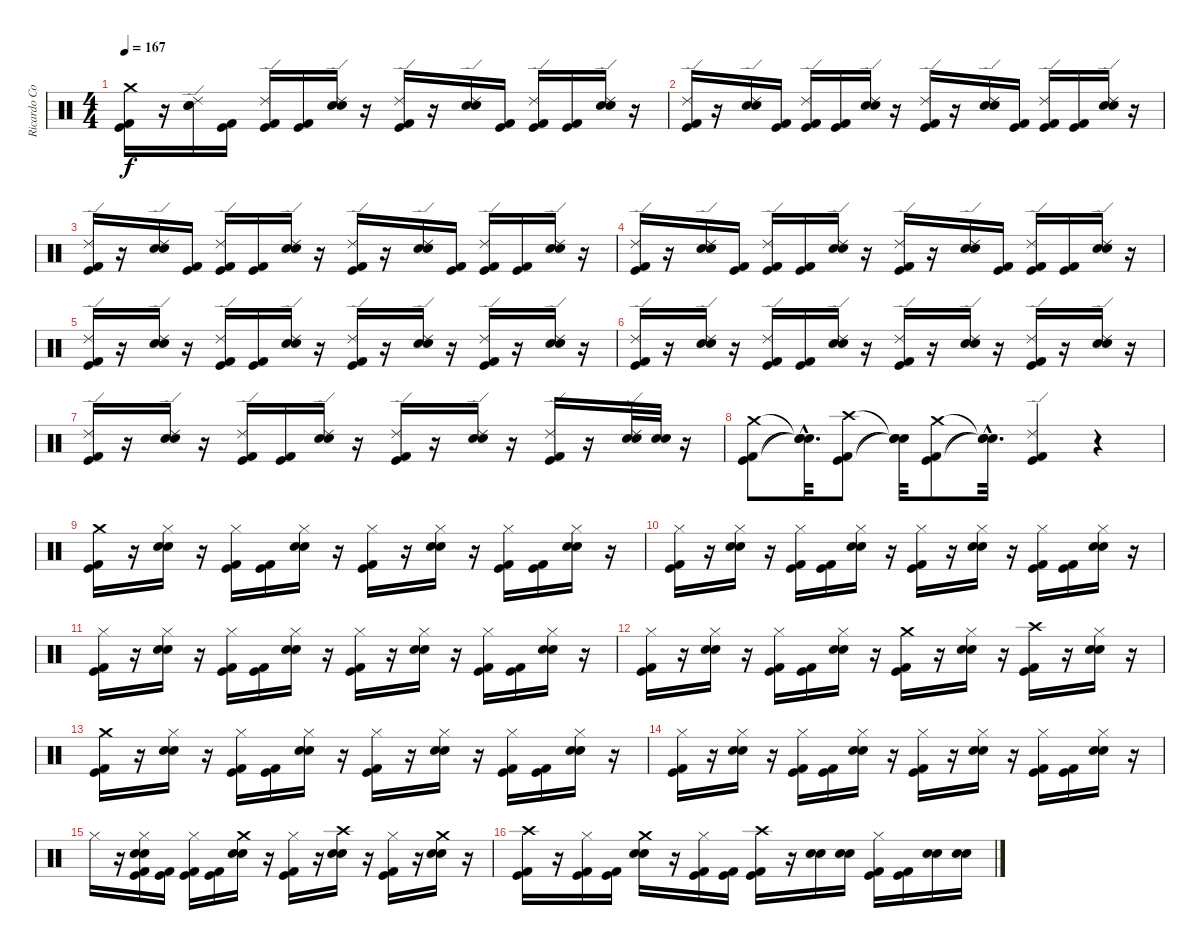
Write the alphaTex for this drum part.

\track ("Ricardo Confessori" "Ricardo Co") {instrument percussion}
\staff {score}
\articulation defaults
\ts (4 4)
\tempo 167
\clef neutral
\ks c
("Crash medium (hit)" "Kick (hit) 2" "Kick (hit)").16{dy f} r.16 ("Ride (edge) 2" "Electric Snare (hit)" "Snare (hit) 2").16 ("Kick (hit) 2" "Kick (hit)").16 ("Ride (edge) 2" "Kick (hit) 2" "Kick (hit)").16 ("Kick (hit) 2" "Kick (hit)").16 ("Ride (edge) 2" "Electric Snare (hit)" "Snare (hit) 2").16 r.16 ("Ride (edge) 2" "Kick (hit) 2" "Kick (hit)").16 r.16 ("Ride (edge) 2" "Electric Snare (hit)" "Snare (hit) 2").16 ("Kick (hit) 2" "Kick (hit)").16 ("Ride (edge) 2" "Kick (hit) 2" "Kick (hit)").16 ("Kick (hit) 2" "Kick (hit)").16 ("Ride (edge) 2" "Electric Snare (hit)" "Snare (hit) 2").16 r.16 |
("Ride (edge) 2" "Kick (hit) 2" "Kick (hit)").16 r.16 ("Ride (edge) 2" "Electric Snare (hit)" "Snare (hit) 2").16 ("Kick (hit) 2" "Kick (hit)").16 ("Ride (edge) 2" "Kick (hit) 2" "Kick (hit)").16 ("Kick (hit) 2" "Kick (hit)").16 ("Ride (edge) 2" "Electric Snare (hit)" "Snare (hit) 2").16 r.16 ("Ride (edge) 2" "Kick (hit) 2" "Kick (hit)").16 r.16 ("Ride (edge) 2" "Electric Snare (hit)" "Snare (hit) 2").16 ("Kick (hit) 2" "Kick (hit)").16 ("Ride (edge) 2" "Kick (hit) 2" "Kick (hit)").16 ("Kick (hit) 2" "Kick (hit)").16 ("Ride (edge) 2" "Electric Snare (hit)" "Snare (hit) 2").16 r.16 |
("Ride (edge) 2" "Kick (hit) 2" "Kick (hit)").16 r.16 ("Ride (edge) 2" "Electric Snare (hit)" "Snare (hit) 2").16 ("Kick (hit) 2" "Kick (hit)").16 ("Ride (edge) 2" "Kick (hit) 2" "Kick (hit)").16 ("Kick (hit) 2" "Kick (hit)").16 ("Ride (edge) 2" "Electric Snare (hit)" "Snare (hit) 2").16 r.16 ("Ride (edge) 2" "Kick (hit) 2" "Kick (hit)").16 r.16 ("Ride (edge) 2" "Electric Snare (hit)" "Snare (hit) 2").16 ("Kick (hit) 2" "Kick (hit)").16 ("Ride (edge) 2" "Kick (hit) 2" "Kick (hit)").16 ("Kick (hit) 2" "Kick (hit)").16 ("Ride (edge) 2" "Electric Snare (hit)" "Snare (hit) 2").16 r.16 |
("Ride (edge) 2" "Kick (hit) 2" "Kick (hit)").16 r.16 ("Ride (edge) 2" "Electric Snare (hit)" "Snare (hit) 2").16 ("Kick (hit) 2" "Kick (hit)").16 ("Ride (edge) 2" "Kick (hit) 2" "Kick (hit)").16 ("Kick (hit) 2" "Kick (hit)").16 ("Ride (edge) 2" "Electric Snare (hit)" "Snare (hit) 2").16 r.16 ("Ride (edge) 2" "Kick (hit) 2" "Kick (hit)").16 r.16 ("Ride (edge) 2" "Electric Snare (hit)" "Snare (hit) 2").16 ("Kick (hit) 2" "Kick (hit)").16 ("Ride (edge) 2" "Kick (hit) 2" "Kick (hit)").16 ("Kick (hit) 2" "Kick (hit)").16 ("Ride (edge) 2" "Electric Snare (hit)" "Snare (hit) 2").16 r.16 |
("Kick (hit) 2" "Ride (edge) 2" "Kick (hit)").16 r.16 ("Electric Snare (hit)" "Snare (hit) 2" "Ride (edge) 2").16 r.16 ("Kick (hit) 2" "Kick (hit)" "Ride (edge) 2").16 ("Kick (hit) 2" "Kick (hit)").16 ("Electric Snare (hit)" "Snare (hit) 2" "Ride (edge) 2").16 r.16 ("Kick (hit) 2" "Kick (hit)" "Ride (edge) 2").16 r.16 ("Electric Snare (hit)" "Snare (hit) 2" "Ride (edge) 2").16 r.16 ("Kick (hit) 2" "Kick (hit)" "Ride (edge) 2").16 r.16 ("Electric Snare (hit)" "Snare (hit) 2" "Ride (edge) 2").16 r.16 |
("Kick (hit) 2" "Ride (edge) 2" "Kick (hit)").16 r.16 ("Electric Snare (hit)" "Snare (hit) 2" "Ride (edge) 2").16 r.16 ("Kick (hit) 2" "Kick (hit)" "Ride (edge) 2").16 ("Kick (hit) 2" "Kick (hit)").16 ("Electric Snare (hit)" "Snare (hit) 2" "Ride (edge) 2").16 r.16 ("Kick (hit) 2" "Kick (hit)" "Ride (edge) 2").16 r.16 ("Electric Snare (hit)" "Snare (hit) 2" "Ride (edge) 2").16 r.16 ("Kick (hit) 2" "Kick (hit)" "Ride (edge) 2").16 r.16 ("Electric Snare (hit)" "Snare (hit) 2" "Ride (edge) 2").16 r.16 |
("Kick (hit) 2" "Ride (edge) 2" "Kick (hit)").16 r.16 ("Electric Snare (hit)" "Snare (hit) 2" "Ride (edge) 2").16 r.16 ("Kick (hit) 2" "Kick (hit)" "Ride (edge) 2").16 ("Kick (hit) 2" "Kick (hit)").16 ("Electric Snare (hit)" "Snare (hit) 2" "Ride (edge) 2").16 r.16 ("Kick (hit) 2" "Kick (hit)" "Ride (edge) 2").16 r.16 ("Electric Snare (hit)" "Snare (hit) 2" "Ride (edge) 2").16 r.16 ("Kick (hit) 2" "Kick (hit)" "Ride (edge) 2").16 r.16 ("Electric Snare (hit)" "Snare (hit) 2" "Ride (edge) 2").32 ("Electric Snare (hit)" "Snare (hit) 2").32 r.16 |
("Crash medium (hit)" "Kick (hit) 2" "Kick (hit)").8 ("Snare (hit)"{hac t} "Snare (hit)"{hac t} "Snare (hit)"{hac t}).32{d} ("Crash high (hit)" "Kick (hit) 2" "Kick (hit)").8 ("Snare (hit)"{t} "Snare (hit)"{t} "Snare (hit)"{t}).32 ("Crash medium (hit)" "Kick (hit) 2" "Kick (hit)").8 ("Snare (hit)"{hac t} "Snare (hit)"{hac t} "Snare (hit)"{hac t}).32{d} ("Ride (edge) 2" "Kick (hit) 2" "Kick (hit)").4 r.4 |
("Crash medium (hit)" "Kick (hit) 2" "Kick (hit)").16 r.16 ("Hi-Hat (closed)" "Electric Snare (hit)" "Snare (hit) 2").16 r.16 ("Kick (hit) 2" "Kick (hit)" "Hi-Hat (closed)").16 ("Kick (hit) 2" "Kick (hit)").16 ("Electric Snare (hit)" "Snare (hit) 2" "Hi-Hat (closed)").16 r.16 ("Kick (hit) 2" "Kick (hit)" "Hi-Hat (closed)").16 r.16 ("Electric Snare (hit)" "Snare (hit) 2" "Hi-Hat (closed)").16 r.16 ("Kick (hit) 2" "Kick (hit)" "Hi-Hat (closed)").16 ("Kick (hit) 2" "Kick (hit)").16 ("Electric Snare (hit)" "Snare (hit) 2" "Hi-Hat (closed)").16 r.16 |
("Hi-Hat (closed)" "Kick (hit) 2" "Kick (hit)").16 r.16 ("Hi-Hat (closed)" "Electric Snare (hit)" "Snare (hit) 2").16 r.16 ("Kick (hit) 2" "Kick (hit)" "Hi-Hat (closed)").16 ("Kick (hit) 2" "Kick (hit)").16 ("Electric Snare (hit)" "Snare (hit) 2" "Hi-Hat (closed)").16 r.16 ("Kick (hit) 2" "Kick (hit)" "Hi-Hat (closed)").16 r.16 ("Electric Snare (hit)" "Snare (hit) 2" "Hi-Hat (closed)").16 r.16 ("Kick (hit) 2" "Kick (hit)" "Hi-Hat (closed)").16 ("Kick (hit) 2" "Kick (hit)").16 ("Electric Snare (hit)" "Snare (hit) 2" "Hi-Hat (closed)").16 r.16 |
("Hi-Hat (closed)" "Kick (hit) 2" "Kick (hit)").16 r.16 ("Hi-Hat (closed)" "Electric Snare (hit)" "Snare (hit) 2").16 r.16 ("Kick (hit) 2" "Kick (hit)" "Hi-Hat (closed)").16 ("Kick (hit) 2" "Kick (hit)").16 ("Electric Snare (hit)" "Snare (hit) 2" "Hi-Hat (closed)").16 r.16 ("Kick (hit) 2" "Kick (hit)" "Hi-Hat (closed)").16 r.16 ("Electric Snare (hit)" "Snare (hit) 2" "Hi-Hat (closed)").16 r.16 ("Kick (hit) 2" "Kick (hit)" "Hi-Hat (closed)").16 ("Kick (hit) 2" "Kick (hit)").16 ("Electric Snare (hit)" "Snare (hit) 2" "Hi-Hat (closed)").16 r.16 |
("Hi-Hat (closed)" "Kick (hit) 2" "Kick (hit)").16 r.16 ("Hi-Hat (closed)" "Electric Snare (hit)" "Snare (hit) 2").16 r.16 ("Kick (hit) 2" "Kick (hit)" "Hi-Hat (closed)").16 ("Kick (hit) 2" "Kick (hit)").16 ("Electric Snare (hit)" "Snare (hit) 2" "Hi-Hat (closed)").16 r.16 ("Crash medium (hit)" "Kick (hit) 2" "Kick (hit)").16 r.16 ("Electric Snare (hit)" "Snare (hit) 2" "Hi-Hat (closed)").16 r.16 ("Crash high (hit)" "Kick (hit) 2" "Kick (hit)").16 r.16 ("Electric Snare (hit)" "Snare (hit) 2" "Hi-Hat (closed)").16 r.16 |
("Crash medium (hit)" "Kick (hit) 2" "Kick (hit)").16 r.16 ("Hi-Hat (closed)" "Electric Snare (hit)" "Snare (hit) 2").16 r.16 ("Kick (hit) 2" "Kick (hit)" "Hi-Hat (closed)").16 ("Kick (hit) 2" "Kick (hit)").16 ("Electric Snare (hit)" "Snare (hit) 2" "Hi-Hat (closed)").16 r.16 ("Kick (hit) 2" "Kick (hit)" "Hi-Hat (closed)").16 r.16 ("Electric Snare (hit)" "Snare (hit) 2" "Hi-Hat (closed)").16 r.16 ("Kick (hit) 2" "Kick (hit)" "Hi-Hat (closed)").16 ("Kick (hit) 2" "Kick (hit)").16 ("Electric Snare (hit)" "Snare (hit) 2" "Hi-Hat (closed)").16 r.16 |
("Hi-Hat (closed)" "Kick (hit) 2" "Kick (hit)").16 r.16 ("Hi-Hat (closed)" "Electric Snare (hit)" "Snare (hit) 2").16 r.16 ("Kick (hit) 2" "Kick (hit)" "Hi-Hat (closed)").16 ("Kick (hit) 2" "Kick (hit)").16 ("Electric Snare (hit)" "Snare (hit) 2" "Hi-Hat (closed)").16 r.16 ("Kick (hit) 2" "Kick (hit)" "Hi-Hat (closed)").16 r.16 ("Electric Snare (hit)" "Snare (hit) 2" "Hi-Hat (closed)").16 r.16 ("Kick (hit) 2" "Kick (hit)" "Hi-Hat (closed)").16 ("Kick (hit) 2" "Kick (hit)").16 ("Electric Snare (hit)" "Snare (hit) 2" "Hi-Hat (closed)").16 r.16 |
"Hi-Hat (closed)".16 r.16 ("Kick (hit) 2" "Kick (hit)" "Hi-Hat (closed)" "Electric Snare (hit)" "Snare (hit) 2").16 ("Kick (hit) 2" "Kick (hit)").16 ("Kick (hit) 2" "Kick (hit)" "Hi-Hat (closed)").16 ("Kick (hit) 2" "Kick (hit)").16 ("Crash medium (hit)" "Electric Snare (hit)" "Snare (hit) 2").16 r.16 ("Kick (hit) 2" "Kick (hit)" "Hi-Hat (closed)").16 r.16 ("Crash high (hit)" "Electric Snare (hit)" "Snare (hit) 2").16 r.16 ("Kick (hit) 2" "Kick (hit)" "Hi-Hat (closed)").16 r.16 ("Crash medium (hit)" "Electric Snare (hit)" "Snare (hit) 2").16 r.16 |
("Crash high (hit)" "Kick (hit) 2" "Kick (hit)").16 r.16 ("Kick (hit) 2" "Kick (hit)" "Hi-Hat (closed)").16 ("Kick (hit) 2" "Kick (hit)").16 ("Crash medium (hit)" "Electric Snare (hit)" "Snare (hit) 2").16 r.16 ("Kick (hit) 2" "Kick (hit)" "Hi-Hat (closed)").16 ("Kick (hit) 2" "Kick (hit)").16 ("Crash high (hit)" "Kick (hit) 2" "Kick (hit)").16 r.16 ("Electric Snare (hit)" "Snare (hit) 2").16 ("Electric Snare (hit)" "Snare (hit) 2").16 ("Hi-Hat (closed)" "Kick (hit) 2" "Kick (hit)").16 ("Kick (hit) 2" "Kick (hit)").16 ("Electric Snare (hit)" "Snare (hit) 2").16 ("Electric Snare (hit)" "Snare (hit) 2").16
